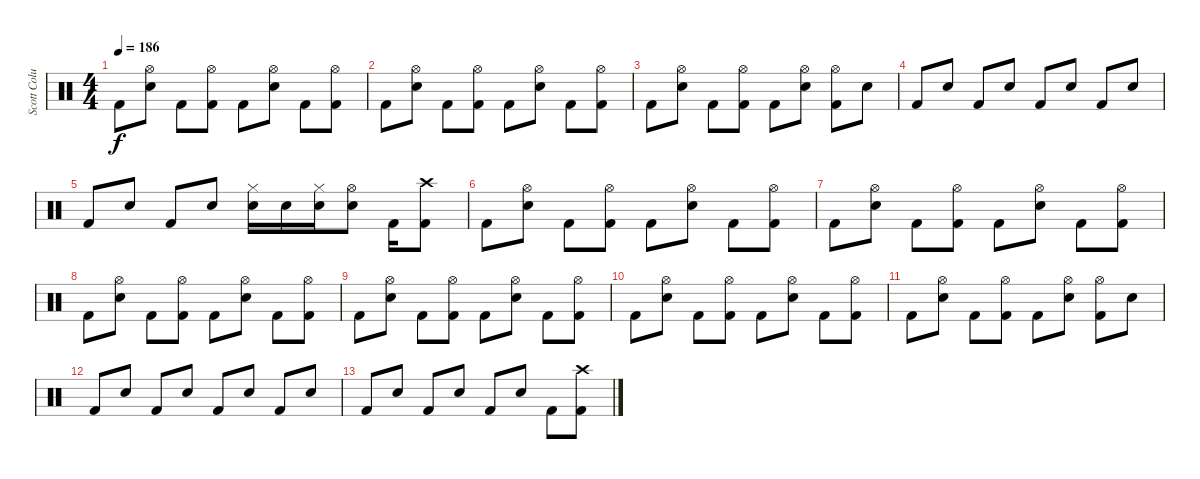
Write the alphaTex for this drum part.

\track ("Scott Columbus" "Scott Colu") {instrument percussion}
\staff {score}
\articulation defaults
\ts (4 4)
\tempo 186
\clef neutral
\ks c "Kick (hit) 2".8{dy f}
("Hi-Hat (open)" "Snare (hit) 2").8 "Kick (hit) 2".8 ("Hi-Hat (open)" "Kick (hit) 2").8 "Kick (hit) 2".8 ("Hi-Hat (open)" "Snare (hit) 2").8 "Kick (hit) 2".8 ("Hi-Hat (open)" "Kick (hit) 2").8 |
"Kick (hit) 2".8 ("Hi-Hat (open)" "Snare (hit) 2").8 "Kick (hit) 2".8 ("Hi-Hat (open)" "Kick (hit) 2").8 "Kick (hit) 2".8 ("Hi-Hat (open)" "Snare (hit) 2").8 "Kick (hit) 2".8 ("Hi-Hat (open)" "Kick (hit) 2").8 |
"Kick (hit) 2".8 ("Hi-Hat (open)" "Snare (hit) 2").8 "Kick (hit) 2".8 ("Hi-Hat (open)" "Kick (hit) 2").8 "Kick (hit) 2".8 ("Hi-Hat (open)" "Snare (hit) 2").8 ("Hi-Hat (open)" "Kick (hit) 2").8 "Snare (hit) 2".8 |
"Kick (hit) 2".8 "Snare (hit) 2".8 "Kick (hit) 2".8 "Snare (hit) 2".8 "Kick (hit) 2".8 "Snare (hit) 2".8 "Kick (hit) 2".8 "Snare (hit) 2".8 |
"Kick (hit) 2".8 "Snare (hit) 2".8 "Kick (hit) 2".8 "Snare (hit) 2".8 ("Hi-Hat (closed)" "Snare (hit) 2").16 "Snare (hit) 2".16 ("Hi-Hat (closed)" "Snare (hit) 2").16 ("Hi-Hat (open)" "Snare (hit) 2").8 "Kick (hit) 2".16 ("Crash high (hit)" "Kick (hit) 2").8 |
"Kick (hit) 2".8 ("Hi-Hat (open)" "Snare (hit) 2").8 "Kick (hit) 2".8 ("Hi-Hat (open)" "Kick (hit) 2").8 "Kick (hit) 2".8 ("Hi-Hat (open)" "Snare (hit) 2").8 "Kick (hit) 2".8 ("Hi-Hat (open)" "Kick (hit) 2").8 |
"Kick (hit) 2".8 ("Hi-Hat (open)" "Snare (hit) 2").8 "Kick (hit) 2".8 ("Hi-Hat (open)" "Kick (hit) 2").8 "Kick (hit) 2".8 ("Hi-Hat (open)" "Snare (hit) 2").8 "Kick (hit) 2".8 ("Hi-Hat (open)" "Kick (hit) 2").8 |
"Kick (hit) 2".8 ("Hi-Hat (open)" "Snare (hit) 2").8 "Kick (hit) 2".8 ("Hi-Hat (open)" "Kick (hit) 2").8 "Kick (hit) 2".8 ("Hi-Hat (open)" "Snare (hit) 2").8 "Kick (hit) 2".8 ("Hi-Hat (open)" "Kick (hit) 2").8 |
"Kick (hit) 2".8 ("Hi-Hat (open)" "Snare (hit) 2").8 "Kick (hit) 2".8 ("Hi-Hat (open)" "Kick (hit) 2").8 "Kick (hit) 2".8 ("Hi-Hat (open)" "Snare (hit) 2").8 "Kick (hit) 2".8 ("Hi-Hat (open)" "Kick (hit) 2").8 |
"Kick (hit) 2".8 ("Hi-Hat (open)" "Snare (hit) 2").8 "Kick (hit) 2".8 ("Hi-Hat (open)" "Kick (hit) 2").8 "Kick (hit) 2".8 ("Hi-Hat (open)" "Snare (hit) 2").8 "Kick (hit) 2".8 ("Hi-Hat (open)" "Kick (hit) 2").8 |
"Kick (hit) 2".8 ("Hi-Hat (open)" "Snare (hit) 2").8 "Kick (hit) 2".8 ("Hi-Hat (open)" "Kick (hit) 2").8 "Kick (hit) 2".8 ("Hi-Hat (open)" "Snare (hit) 2").8 ("Hi-Hat (open)" "Kick (hit) 2").8 "Snare (hit) 2".8 |
"Kick (hit) 2".8 "Snare (hit) 2".8 "Kick (hit) 2".8 "Snare (hit) 2".8 "Kick (hit) 2".8 "Snare (hit) 2".8 "Kick (hit) 2".8 "Snare (hit) 2".8 |
"Kick (hit) 2".8 "Snare (hit) 2".8 "Kick (hit) 2".8 "Snare (hit) 2".8 "Kick (hit) 2".8 "Snare (hit) 2".8 "Kick (hit) 2".8 ("Crash high (hit)" "Kick (hit) 2").8
